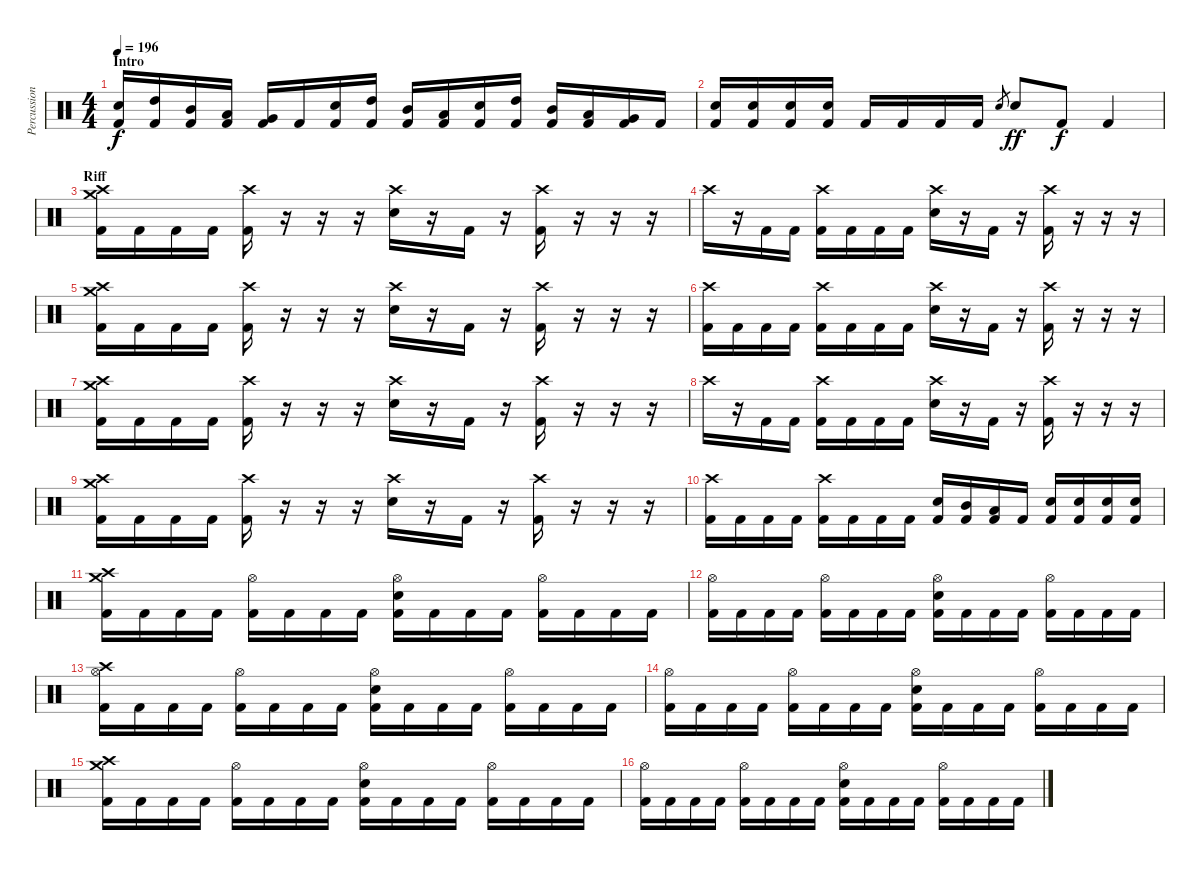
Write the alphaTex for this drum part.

\track ("Percussions" "Percussion") {instrument percussion}
\staff {score}
\articulation defaults
\ts (4 4)
\section ("" "Intro")
\tempo 196
\clef neutral
\ks c
("Electric Snare (hit)" "Kick (hit) 2").16{dy f} ("High Tom (hit)" "Kick (hit) 2").16 ("Mid Tom (hit)" "Kick (hit) 2").16 ("Low Tom (hit)" "Kick (hit) 2").16 ("Very Low Tom (hit)" "Kick (hit) 2").16 "Kick (hit) 2".16 ("Electric Snare (hit)" "Kick (hit) 2").16 ("High Tom (hit)" "Kick (hit) 2").16 ("Mid Tom (hit)" "Kick (hit) 2").16 ("Low Tom (hit)" "Kick (hit) 2").16 ("Electric Snare (hit)" "Kick (hit) 2").16 ("High Tom (hit)" "Kick (hit) 2").16 ("Mid Tom (hit)" "Kick (hit) 2").16 ("Low Tom (hit)" "Kick (hit) 2").16 ("Very Low Tom (hit)" "Kick (hit) 2").16 "Kick (hit) 2".16 |
("Electric Snare (hit)" "Kick (hit) 2").16 ("Electric Snare (hit)" "Kick (hit) 2").16 ("Electric Snare (hit)" "Kick (hit) 2").16 ("Electric Snare (hit)" "Kick (hit) 2").16 "Kick (hit) 2".16 "Kick (hit) 2".16 "Kick (hit) 2".16 "Kick (hit) 2".16 "Electric Snare (hit)".8{gr} "Electric Snare (hit)".8{dy ff} "Kick (hit) 2".8{dy f} "Kick (hit) 2".4 |
\section ("" "Riff")
("Crash medium (hit)" "Crash high (hit)" "Kick (hit) 2").16 "Kick (hit) 2".16 "Kick (hit) 2".16 "Kick (hit) 2".16 ("Crash high (hit)" "Kick (hit) 2").16 r.16 r.16 r.16 ("Crash high (hit)" "Electric Snare (hit)").16 r.16 "Kick (hit) 2".16 r.16 ("Crash high (hit)" "Kick (hit) 2").16 r.16 r.16 r.16 |
"Crash high (hit)".16 r.16 "Kick (hit) 2".16 "Kick (hit) 2".16 ("Crash high (hit)" "Kick (hit) 2").16 "Kick (hit) 2".16 "Kick (hit) 2".16 "Kick (hit) 2".16 ("Crash high (hit)" "Electric Snare (hit)").16 r.16 "Kick (hit) 2".16 r.16 ("Crash high (hit)" "Kick (hit) 2").16 r.16 r.16 r.16 |
("Crash medium (hit)" "Crash high (hit)" "Kick (hit) 2").16 "Kick (hit) 2".16 "Kick (hit) 2".16 "Kick (hit) 2".16 ("Crash high (hit)" "Kick (hit) 2").16 r.16 r.16 r.16 ("Crash high (hit)" "Electric Snare (hit)").16 r.16 "Kick (hit) 2".16 r.16 ("Crash high (hit)" "Kick (hit) 2").16 r.16 r.16 r.16 |
("Crash high (hit)" "Kick (hit) 2").16 "Kick (hit) 2".16 "Kick (hit) 2".16 "Kick (hit) 2".16 ("Crash high (hit)" "Kick (hit) 2").16 "Kick (hit) 2".16 "Kick (hit) 2".16 "Kick (hit) 2".16 ("Crash high (hit)" "Electric Snare (hit)").16 r.16 "Kick (hit) 2".16 r.16 ("Crash high (hit)" "Kick (hit) 2").16 r.16 r.16 r.16 |
("Crash high (hit)" "Crash medium (hit)" "Kick (hit) 2").16 "Kick (hit) 2".16 "Kick (hit) 2".16 "Kick (hit) 2".16 ("Crash high (hit)" "Kick (hit) 2").16 r.16 r.16 r.16 ("Crash high (hit)" "Electric Snare (hit)").16 r.16 "Kick (hit) 2".16 r.16 ("Crash high (hit)" "Kick (hit) 2").16 r.16 r.16 r.16 |
"Crash high (hit)".16 r.16 "Kick (hit) 2".16 "Kick (hit) 2".16 ("Crash high (hit)" "Kick (hit) 2").16 "Kick (hit) 2".16 "Kick (hit) 2".16 "Kick (hit) 2".16 ("Crash high (hit)" "Electric Snare (hit)").16 r.16 "Kick (hit) 2".16 r.16 ("Crash high (hit)" "Kick (hit) 2").16 r.16 r.16 r.16 |
("Crash medium (hit)" "Crash high (hit)" "Kick (hit) 2").16 "Kick (hit) 2".16 "Kick (hit) 2".16 "Kick (hit) 2".16 ("Crash high (hit)" "Kick (hit) 2").16 r.16 r.16 r.16 ("Crash high (hit)" "Electric Snare (hit)").16 r.16 "Kick (hit) 2".16 r.16 ("Crash high (hit)" "Kick (hit) 2").16 r.16 r.16 r.16 |
("Crash high (hit)" "Kick (hit) 2").16 "Kick (hit) 2".16 "Kick (hit) 2".16 "Kick (hit) 2".16 ("Crash high (hit)" "Kick (hit) 2").16 "Kick (hit) 2".16 "Kick (hit) 2".16 "Kick (hit) 2".16 ("Electric Snare (hit)" "Kick (hit) 2").16 ("Mid Tom (hit)" "Kick (hit) 2").16 ("Low Tom (hit)" "Kick (hit) 2").16 "Kick (hit) 2".16 ("Electric Snare (hit)" "Kick (hit) 2").16 ("Electric Snare (hit)" "Kick (hit) 2").16 ("Electric Snare (hit)" "Kick (hit) 2").16 ("Electric Snare (hit)" "Kick (hit) 2").16 |
("Crash medium (hit)" "Crash high (hit)" "Kick (hit) 2").16 "Kick (hit) 2".16 "Kick (hit) 2".16 "Kick (hit) 2".16 ("Hi-Hat (open)" "Kick (hit) 2").16 "Kick (hit) 2".16 "Kick (hit) 2".16 "Kick (hit) 2".16 ("Hi-Hat (open)" "Electric Snare (hit)" "Kick (hit) 2").16 "Kick (hit) 2".16 "Kick (hit) 2".16 "Kick (hit) 2".16 ("Hi-Hat (open)" "Kick (hit) 2").16 "Kick (hit) 2".16 "Kick (hit) 2".16 "Kick (hit) 2".16 |
("Hi-Hat (open)" "Kick (hit) 2").16 "Kick (hit) 2".16 "Kick (hit) 2".16 "Kick (hit) 2".16 ("Hi-Hat (open)" "Kick (hit) 2").16 "Kick (hit) 2".16 "Kick (hit) 2".16 "Kick (hit) 2".16 ("Hi-Hat (open)" "Electric Snare (hit)" "Kick (hit) 2").16 "Kick (hit) 2".16 "Kick (hit) 2".16 "Kick (hit) 2".16 ("Hi-Hat (open)" "Kick (hit) 2").16 "Kick (hit) 2".16 "Kick (hit) 2".16 "Kick (hit) 2".16 |
("Crash high (hit)" "Hi-Hat (open)" "Kick (hit) 2").16 "Kick (hit) 2".16 "Kick (hit) 2".16 "Kick (hit) 2".16 ("Hi-Hat (open)" "Kick (hit) 2").16 "Kick (hit) 2".16 "Kick (hit) 2".16 "Kick (hit) 2".16 ("Hi-Hat (open)" "Electric Snare (hit)" "Kick (hit) 2").16 "Kick (hit) 2".16 "Kick (hit) 2".16 "Kick (hit) 2".16 ("Hi-Hat (open)" "Kick (hit) 2").16 "Kick (hit) 2".16 "Kick (hit) 2".16 "Kick (hit) 2".16 |
("Hi-Hat (open)" "Kick (hit) 2").16 "Kick (hit) 2".16 "Kick (hit) 2".16 "Kick (hit) 2".16 ("Hi-Hat (open)" "Kick (hit) 2").16 "Kick (hit) 2".16 "Kick (hit) 2".16 "Kick (hit) 2".16 ("Hi-Hat (open)" "Electric Snare (hit)" "Kick (hit) 2").16 "Kick (hit) 2".16 "Kick (hit) 2".16 "Kick (hit) 2".16 ("Hi-Hat (open)" "Kick (hit) 2").16 "Kick (hit) 2".16 "Kick (hit) 2".16 "Kick (hit) 2".16 |
("Crash medium (hit)" "Crash high (hit)" "Kick (hit) 2").16 "Kick (hit) 2".16 "Kick (hit) 2".16 "Kick (hit) 2".16 ("Hi-Hat (open)" "Kick (hit) 2").16 "Kick (hit) 2".16 "Kick (hit) 2".16 "Kick (hit) 2".16 ("Hi-Hat (open)" "Electric Snare (hit)" "Kick (hit) 2").16 "Kick (hit) 2".16 "Kick (hit) 2".16 "Kick (hit) 2".16 ("Hi-Hat (open)" "Kick (hit) 2").16 "Kick (hit) 2".16 "Kick (hit) 2".16 "Kick (hit) 2".16 |
("Hi-Hat (open)" "Kick (hit) 2").16 "Kick (hit) 2".16 "Kick (hit) 2".16 "Kick (hit) 2".16 ("Hi-Hat (open)" "Kick (hit) 2").16 "Kick (hit) 2".16 "Kick (hit) 2".16 "Kick (hit) 2".16 ("Hi-Hat (open)" "Electric Snare (hit)" "Kick (hit) 2").16 "Kick (hit) 2".16 "Kick (hit) 2".16 "Kick (hit) 2".16 ("Hi-Hat (open)" "Kick (hit) 2").16 "Kick (hit) 2".16 "Kick (hit) 2".16 "Kick (hit) 2".16
